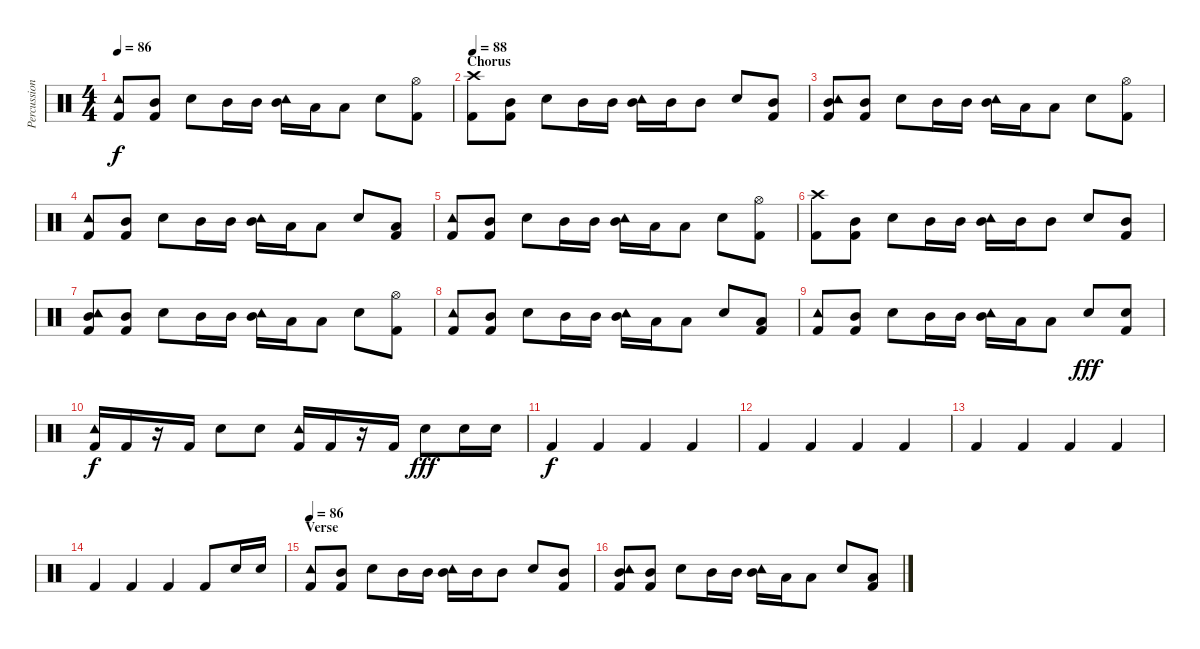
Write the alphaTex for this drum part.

\track ("Percussion" "Percussion") {instrument percussion}
\staff {score}
\articulation defaults
\ts (4 4)
\tempo 86
\clef neutral
\ks c
("Tambourine (hit)" "Kick (hit) 2").8{dy f} ("Mid Tom (hit)" "Kick (hit) 2").8 "Snare (hit) 2".8 "Mid Tom (hit)".16 "Mid Tom (hit)".16 ("Tambourine (hit)" "Mid Tom (hit)").16 "Low Tom (hit)".16 "Low Tom (hit)".8 "Snare (hit) 2".8 ("Hi-Hat (open)" "Kick (hit) 2").8 |
\section ("" "Chorus")
\tempo 88
("Crash high (hit)" "Kick (hit) 2").8 ("Mid Tom (hit)" "Kick (hit) 2").8 "Snare (hit) 2".8 "Mid Tom (hit)".16 "Mid Tom (hit)".16 ("Tambourine (hit)" "Mid Tom (hit)").16 "Mid Tom (hit)".16 "Mid Tom (hit)".8 "Snare (hit) 2".8 ("Mid Tom (hit)" "Kick (hit) 2").8 |
("Tambourine (hit)" "Mid Tom (hit)" "Kick (hit) 2").8 ("Mid Tom (hit)" "Kick (hit) 2").8 "Snare (hit) 2".8 "Mid Tom (hit)".16 "Mid Tom (hit)".16 ("Tambourine (hit)" "Mid Tom (hit)").16 "Low Tom (hit)".16 "Low Tom (hit)".8 "Snare (hit) 2".8 ("Hi-Hat (open)" "Kick (hit) 2").8 |
("Tambourine (hit)" "Kick (hit) 2").8 ("Mid Tom (hit)" "Kick (hit) 2").8 "Snare (hit) 2".8 "Mid Tom (hit)".16 "Mid Tom (hit)".16 ("Tambourine (hit)" "Mid Tom (hit)").16 "Low Tom (hit)".16 "Low Tom (hit)".8 "Snare (hit) 2".8 ("Low Tom (hit)" "Kick (hit) 2").8 |
("Tambourine (hit)" "Kick (hit) 2").8 ("Mid Tom (hit)" "Kick (hit) 2").8 "Snare (hit) 2".8 "Mid Tom (hit)".16 "Mid Tom (hit)".16 ("Tambourine (hit)" "Mid Tom (hit)").16 "Low Tom (hit)".16 "Low Tom (hit)".8 "Snare (hit) 2".8 ("Hi-Hat (open)" "Kick (hit) 2").8 |
("Crash high (hit)" "Kick (hit) 2").8 ("Mid Tom (hit)" "Kick (hit) 2").8 "Snare (hit) 2".8 "Mid Tom (hit)".16 "Mid Tom (hit)".16 ("Tambourine (hit)" "Mid Tom (hit)").16 "Mid Tom (hit)".16 "Mid Tom (hit)".8 "Snare (hit) 2".8 ("Mid Tom (hit)" "Kick (hit) 2").8 |
("Tambourine (hit)" "Mid Tom (hit)" "Kick (hit) 2").8 ("Mid Tom (hit)" "Kick (hit) 2").8 "Snare (hit) 2".8 "Mid Tom (hit)".16 "Mid Tom (hit)".16 ("Tambourine (hit)" "Mid Tom (hit)").16 "Low Tom (hit)".16 "Low Tom (hit)".8 "Snare (hit) 2".8 ("Hi-Hat (open)" "Kick (hit) 2").8 |
("Tambourine (hit)" "Kick (hit) 2").8 ("Mid Tom (hit)" "Kick (hit) 2").8 "Snare (hit) 2".8 "Mid Tom (hit)".16 "Mid Tom (hit)".16 ("Tambourine (hit)" "Mid Tom (hit)").16 "Low Tom (hit)".16 "Low Tom (hit)".8 "Snare (hit) 2".8 ("Low Tom (hit)" "Kick (hit) 2").8 |
("Tambourine (hit)" "Kick (hit) 2").8 ("Mid Tom (hit)" "Kick (hit) 2").8 "Snare (hit) 2".8 "Mid Tom (hit)".16 "Mid Tom (hit)".16 ("Tambourine (hit)" "Mid Tom (hit)").16 "Low Tom (hit)".16 "Low Tom (hit)".8 "Snare (hit) 2".8{dy fff} ("Snare (hit) 2" "Kick (hit) 2").8 |
("Tambourine (hit)" "Kick (hit) 2").16{dy f} "Kick (hit) 2".16 r.16 "Kick (hit) 2".16 "Snare (hit) 2".8 "Snare (hit) 2".8 ("Tambourine (hit)" "Kick (hit) 2").16 "Kick (hit) 2".16 r.16 "Kick (hit) 2".16 "Snare (hit) 2".8{dy fff} "Snare (hit) 2".16 "Snare (hit) 2".16 |
"Kick (hit) 2".4{dy f} "Kick (hit) 2".4 "Kick (hit) 2".4 "Kick (hit) 2".4 |
"Kick (hit) 2".4 "Kick (hit) 2".4 "Kick (hit) 2".4 "Kick (hit) 2".4 |
"Kick (hit) 2".4 "Kick (hit) 2".4 "Kick (hit) 2".4 "Kick (hit) 2".4 |
"Kick (hit) 2".4 "Kick (hit) 2".4 "Kick (hit) 2".4 "Kick (hit) 2".8 "Snare (hit) 2".16 "Snare (hit) 2".16 |
\section ("" "Verse")
\tempo 86
("Tambourine (hit)" "Kick (hit) 2").8 ("Mid Tom (hit)" "Kick (hit) 2").8 "Snare (hit) 2".8 "Mid Tom (hit)".16 "Mid Tom (hit)".16 ("Tambourine (hit)" "Mid Tom (hit)").16 "Mid Tom (hit)".16 "Mid Tom (hit)".8 "Snare (hit) 2".8 ("Mid Tom (hit)" "Kick (hit) 2").8 |
("Tambourine (hit)" "Mid Tom (hit)" "Kick (hit) 2").8 ("Mid Tom (hit)" "Kick (hit) 2").8 "Snare (hit) 2".8 "Mid Tom (hit)".16 "Mid Tom (hit)".16 ("Tambourine (hit)" "Mid Tom (hit)").16 "Low Tom (hit)".16 "Low Tom (hit)".8 "Snare (hit) 2".8 ("Low Tom (hit)" "Kick (hit) 2").8
